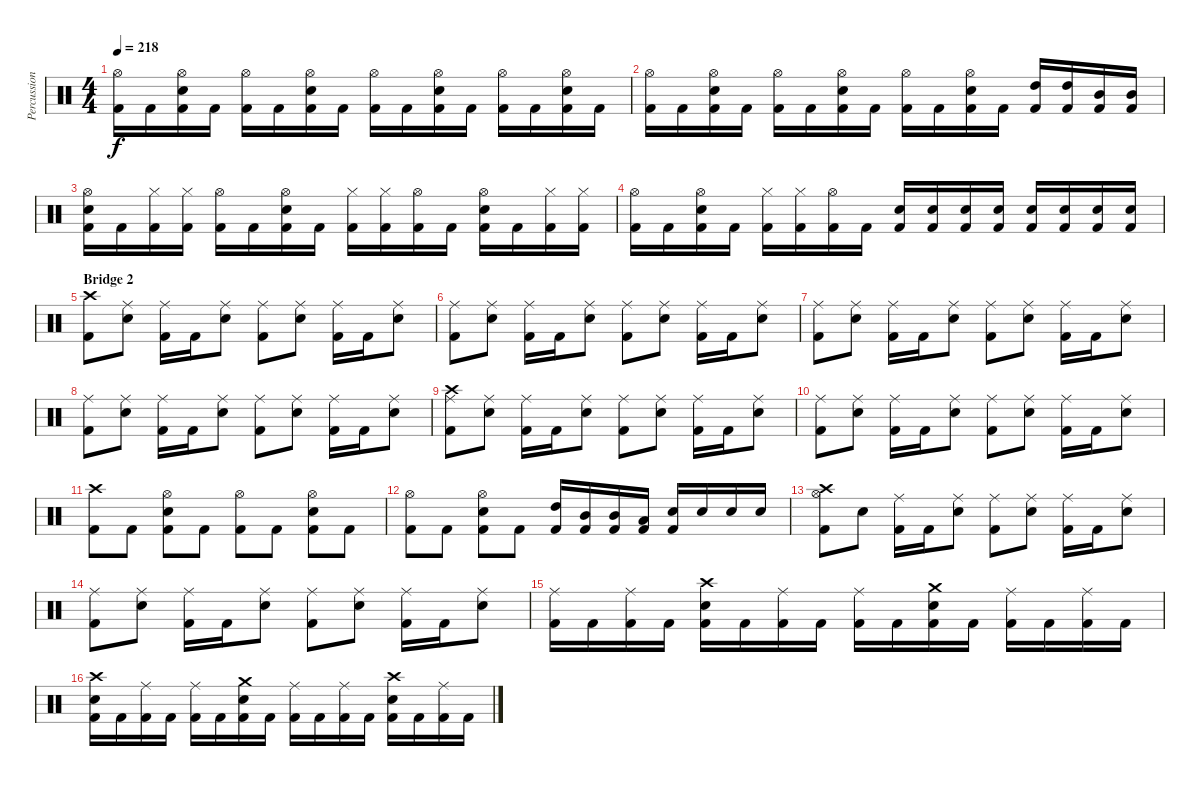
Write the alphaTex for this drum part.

\track ("Percussion" "Percussion") {instrument percussion}
\staff {score}
\articulation defaults
\ts (4 4)
\tempo 218
\clef neutral
\ks c
("Hi-Hat (open)" "Kick (hit) 2").16{dy f} "Kick (hit) 2".16 ("Hi-Hat (open)" "Electric Snare (hit)" "Kick (hit) 2").16 "Kick (hit) 2".16 ("Hi-Hat (open)" "Kick (hit) 2").16 "Kick (hit) 2".16 ("Hi-Hat (open)" "Electric Snare (hit)" "Kick (hit) 2").16 "Kick (hit) 2".16 ("Hi-Hat (open)" "Kick (hit) 2").16 "Kick (hit) 2".16 ("Hi-Hat (open)" "Electric Snare (hit)" "Kick (hit) 2").16 "Kick (hit) 2".16 ("Hi-Hat (open)" "Kick (hit) 2").16 "Kick (hit) 2".16 ("Hi-Hat (open)" "Electric Snare (hit)" "Kick (hit) 2").16 "Kick (hit) 2".16 |
("Hi-Hat (open)" "Kick (hit) 2").16 "Kick (hit) 2".16 ("Hi-Hat (open)" "Electric Snare (hit)" "Kick (hit) 2").16 "Kick (hit) 2".16 ("Hi-Hat (open)" "Kick (hit) 2").16 "Kick (hit) 2".16 ("Hi-Hat (open)" "Electric Snare (hit)" "Kick (hit) 2").16 "Kick (hit) 2".16 ("Hi-Hat (open)" "Kick (hit) 2").16 "Kick (hit) 2".16 ("Hi-Hat (open)" "Electric Snare (hit)" "Kick (hit) 2").16 "Kick (hit) 2".16 ("High Tom (hit)" "Kick (hit) 2").16 ("High Tom (hit)" "Kick (hit) 2").16 ("Mid Tom (hit)" "Kick (hit) 2").16 ("Mid Tom (hit)" "Kick (hit) 2").16 |
("Hi-Hat (open)" "Electric Snare (hit)" "Kick (hit) 2").16 "Kick (hit) 2".16 ("Hi-Hat (closed)" "Kick (hit) 2").16 ("Hi-Hat (closed)" "Kick (hit) 2").16 ("Hi-Hat (open)" "Kick (hit) 2").16 "Kick (hit) 2".16 ("Hi-Hat (open)" "Electric Snare (hit)" "Kick (hit) 2").16 "Kick (hit) 2".16 ("Hi-Hat (closed)" "Kick (hit) 2").16 ("Hi-Hat (closed)" "Kick (hit) 2").16 ("Hi-Hat (open)" "Kick (hit) 2").16 "Kick (hit) 2".16 ("Hi-Hat (open)" "Electric Snare (hit)" "Kick (hit) 2").16 "Kick (hit) 2".16 ("Hi-Hat (closed)" "Kick (hit) 2").16 ("Hi-Hat (closed)" "Kick (hit) 2").16 |
("Hi-Hat (open)" "Kick (hit) 2").16 "Kick (hit) 2".16 ("Hi-Hat (open)" "Electric Snare (hit)" "Kick (hit) 2").16 "Kick (hit) 2".16 ("Hi-Hat (closed)" "Kick (hit) 2").16 ("Hi-Hat (closed)" "Kick (hit) 2").16 ("Hi-Hat (open)" "Kick (hit) 2").16 "Kick (hit) 2".16 ("Electric Snare (hit)" "Kick (hit) 2").16 ("Electric Snare (hit)" "Kick (hit) 2").16 ("Electric Snare (hit)" "Kick (hit) 2").16 ("Electric Snare (hit)" "Kick (hit) 2").16 ("Electric Snare (hit)" "Kick (hit) 2").16 ("Electric Snare (hit)" "Kick (hit) 2").16 ("Electric Snare (hit)" "Kick (hit) 2").16 ("Electric Snare (hit)" "Kick (hit) 2").16 |
\section ("" "Bridge 2")
("Crash high (hit)" "Kick (hit) 2").8 ("Ride (middle)" "Electric Snare (hit)").8 ("Ride (middle)" "Kick (hit) 2").16 "Kick (hit) 2".16 ("Ride (middle)" "Electric Snare (hit)").8 ("Ride (middle)" "Kick (hit) 2").8 ("Ride (middle)" "Electric Snare (hit)").8 ("Ride (middle)" "Kick (hit) 2").16 "Kick (hit) 2".16 ("Ride (middle)" "Electric Snare (hit)").8 |
("Ride (middle)" "Kick (hit) 2").8 ("Ride (middle)" "Electric Snare (hit)").8 ("Ride (middle)" "Kick (hit) 2").16 "Kick (hit) 2".16 ("Ride (middle)" "Electric Snare (hit)").8 ("Ride (middle)" "Kick (hit) 2").8 ("Ride (middle)" "Electric Snare (hit)").8 ("Ride (middle)" "Kick (hit) 2").16 "Kick (hit) 2".16 ("Ride (middle)" "Electric Snare (hit)").8 |
("Ride (middle)" "Kick (hit) 2").8 ("Ride (middle)" "Electric Snare (hit)").8 ("Ride (middle)" "Kick (hit) 2").16 "Kick (hit) 2".16 ("Ride (middle)" "Electric Snare (hit)").8 ("Ride (middle)" "Kick (hit) 2").8 ("Ride (middle)" "Electric Snare (hit)").8 ("Ride (middle)" "Kick (hit) 2").16 "Kick (hit) 2".16 ("Ride (middle)" "Electric Snare (hit)").8 |
("Ride (middle)" "Kick (hit) 2").8 ("Ride (middle)" "Electric Snare (hit)").8 ("Ride (middle)" "Kick (hit) 2").16 "Kick (hit) 2".16 ("Ride (middle)" "Electric Snare (hit)").8 ("Ride (middle)" "Kick (hit) 2").8 ("Ride (middle)" "Electric Snare (hit)").8 ("Ride (middle)" "Kick (hit) 2").16 "Kick (hit) 2".16 ("Ride (middle)" "Electric Snare (hit)").8 |
("Crash high (hit)" "Ride (middle)" "Kick (hit) 2").8 ("Ride (middle)" "Electric Snare (hit)").8 ("Ride (middle)" "Kick (hit) 2").16 "Kick (hit) 2".16 ("Ride (middle)" "Electric Snare (hit)").8 ("Ride (middle)" "Kick (hit) 2").8 ("Ride (middle)" "Electric Snare (hit)").8 ("Ride (middle)" "Kick (hit) 2").16 "Kick (hit) 2".16 ("Ride (middle)" "Electric Snare (hit)").8 |
("Ride (middle)" "Kick (hit) 2").8 ("Ride (middle)" "Electric Snare (hit)").8 ("Ride (middle)" "Kick (hit) 2").16 "Kick (hit) 2".16 ("Ride (middle)" "Electric Snare (hit)").8 ("Ride (middle)" "Kick (hit) 2").8 ("Ride (middle)" "Electric Snare (hit)").8 ("Ride (middle)" "Kick (hit) 2").16 "Kick (hit) 2".16 ("Ride (middle)" "Electric Snare (hit)").8 |
("Crash high (hit)" "Kick (hit) 2").8 "Kick (hit) 2".8 ("Hi-Hat (open)" "Electric Snare (hit)" "Kick (hit) 2").8 "Kick (hit) 2".8 ("Hi-Hat (open)" "Kick (hit) 2").8 "Kick (hit) 2".8 ("Hi-Hat (open)" "Electric Snare (hit)" "Kick (hit) 2").8 "Kick (hit) 2".8 |
("Hi-Hat (open)" "Kick (hit) 2").8 "Kick (hit) 2".8 ("Hi-Hat (open)" "Electric Snare (hit)" "Kick (hit) 2").8 "Kick (hit) 2".8 ("High Tom (hit)" "Kick (hit) 2").16 ("Mid Tom (hit)" "Kick (hit) 2").16 ("Mid Tom (hit)" "Kick (hit) 2").16 ("Low Tom (hit)" "Kick (hit) 2").16 ("Electric Snare (hit)" "Kick (hit) 2").16 "Electric Snare (hit)".16 "Electric Snare (hit)".16 "Electric Snare (hit)".16 |
("Crash high (hit)" "Hi-Hat (open)" "Kick (hit) 2").8 "Electric Snare (hit)".8 ("Ride (middle)" "Kick (hit) 2").16 "Kick (hit) 2".16 ("Ride (middle)" "Electric Snare (hit)").8 ("Ride (middle)" "Kick (hit) 2").8 ("Ride (middle)" "Electric Snare (hit)").8 ("Ride (middle)" "Kick (hit) 2").16 "Kick (hit) 2".16 ("Ride (middle)" "Electric Snare (hit)").8 |
("Ride (middle)" "Kick (hit) 2").8 ("Ride (middle)" "Electric Snare (hit)").8 ("Ride (middle)" "Kick (hit) 2").16 "Kick (hit) 2".16 ("Ride (middle)" "Electric Snare (hit)").8 ("Ride (middle)" "Kick (hit) 2").8 ("Ride (middle)" "Electric Snare (hit)").8 ("Ride (middle)" "Kick (hit) 2").16 "Kick (hit) 2".16 ("Ride (middle)" "Electric Snare (hit)").8 |
("Ride (middle)" "Kick (hit) 2").16 "Kick (hit) 2".16 ("Ride (middle)" "Kick (hit) 2").16 "Kick (hit) 2".16 ("Crash high (hit)" "Electric Snare (hit)" "Kick (hit) 2").16 "Kick (hit) 2".16 ("Ride (middle)" "Kick (hit) 2").16 "Kick (hit) 2".16 ("Ride (middle)" "Kick (hit) 2").16 "Kick (hit) 2".16 ("Crash medium (hit)" "Electric Snare (hit)" "Kick (hit) 2").16 "Kick (hit) 2".16 ("Ride (middle)" "Kick (hit) 2").16 "Kick (hit) 2".16 ("Ride (middle)" "Kick (hit) 2").16 "Kick (hit) 2".16 |
("Crash high (hit)" "Electric Snare (hit)" "Kick (hit) 2").16 "Kick (hit) 2".16 ("Ride (middle)" "Kick (hit) 2").16 "Kick (hit) 2".16 ("Ride (middle)" "Kick (hit) 2").16 "Kick (hit) 2".16 ("Crash medium (hit)" "Electric Snare (hit)" "Kick (hit) 2").16 "Kick (hit) 2".16 ("Ride (middle)" "Kick (hit) 2").16 "Kick (hit) 2".16 ("Ride (middle)" "Kick (hit) 2").16 "Kick (hit) 2".16 ("Crash high (hit)" "Electric Snare (hit)" "Kick (hit) 2").16 "Kick (hit) 2".16 ("Ride (middle)" "Kick (hit) 2").16 "Kick (hit) 2".16
